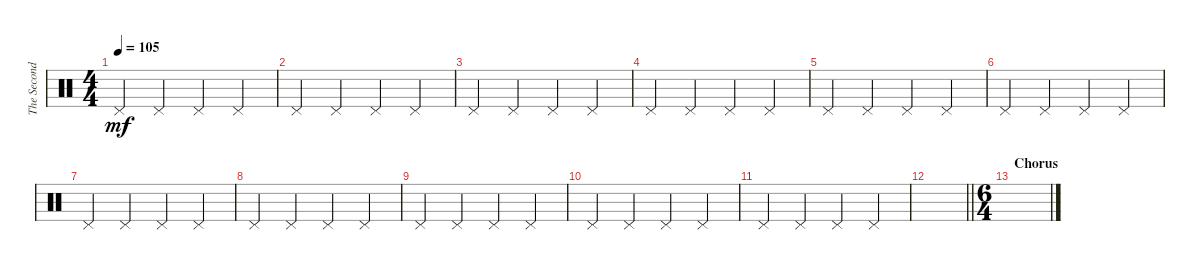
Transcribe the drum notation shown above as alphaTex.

\track ("The Second Drummer" "The Second") {instrument percussion}
\staff {score}
\articulation defaults
\ts (4 4)
\tempo 105
\clef neutral
\ks c "Pedal Hi-Hat (hit)".4{dy mf} "Pedal Hi-Hat (hit)".4 "Pedal Hi-Hat (hit)".4 "Pedal Hi-Hat (hit)".4
|
"Pedal Hi-Hat (hit)".4 "Pedal Hi-Hat (hit)".4 "Pedal Hi-Hat (hit)".4 "Pedal Hi-Hat (hit)".4 |
"Pedal Hi-Hat (hit)".4 "Pedal Hi-Hat (hit)".4 "Pedal Hi-Hat (hit)".4 "Pedal Hi-Hat (hit)".4 |
"Pedal Hi-Hat (hit)".4 "Pedal Hi-Hat (hit)".4 "Pedal Hi-Hat (hit)".4 "Pedal Hi-Hat (hit)".4 |
"Pedal Hi-Hat (hit)".4 "Pedal Hi-Hat (hit)".4 "Pedal Hi-Hat (hit)".4 "Pedal Hi-Hat (hit)".4 |
"Pedal Hi-Hat (hit)".4 "Pedal Hi-Hat (hit)".4 "Pedal Hi-Hat (hit)".4 "Pedal Hi-Hat (hit)".4 |
"Pedal Hi-Hat (hit)".4 "Pedal Hi-Hat (hit)".4 "Pedal Hi-Hat (hit)".4 "Pedal Hi-Hat (hit)".4 |
"Pedal Hi-Hat (hit)".4 "Pedal Hi-Hat (hit)".4 "Pedal Hi-Hat (hit)".4 "Pedal Hi-Hat (hit)".4 |
"Pedal Hi-Hat (hit)".4 "Pedal Hi-Hat (hit)".4 "Pedal Hi-Hat (hit)".4 "Pedal Hi-Hat (hit)".4 |
"Pedal Hi-Hat (hit)".4 "Pedal Hi-Hat (hit)".4 "Pedal Hi-Hat (hit)".4 "Pedal Hi-Hat (hit)".4 |
"Pedal Hi-Hat (hit)".4 "Pedal Hi-Hat (hit)".4 "Pedal Hi-Hat (hit)".4 "Pedal Hi-Hat (hit)".4 |
\barLineRight lightlight
|
\ts (6 4)
\section ("" "Chorus")
